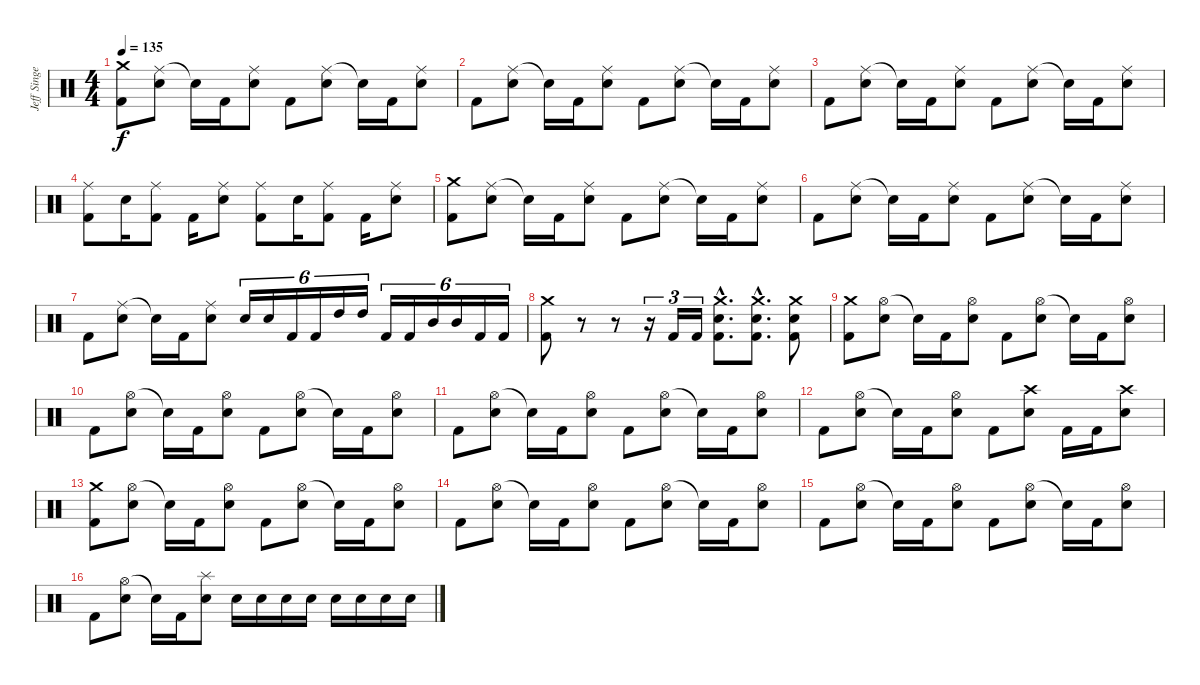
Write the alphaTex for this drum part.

\track ("Jeff Singer" "Jeff Singe") {instrument percussion}
\staff {score}
\articulation defaults
\ts (4 4)
\tempo 135
\clef neutral
\ks c
("Crash medium (hit)" "Kick (hit) 2").8{dy f} ("Ride (middle)" "Snare (hit) 2").8 "Snare (hit)"{t}.16 "Kick (hit) 2".16 ("Ride (middle)" "Snare (hit) 2").8 "Kick (hit) 2".8 ("Ride (middle)" "Snare (hit) 2").8 "Snare (hit)"{t}.16 "Kick (hit) 2".16 ("Ride (middle)" "Snare (hit) 2").8 |
"Kick (hit) 2".8 ("Ride (middle)" "Snare (hit) 2").8 "Snare (hit)"{t}.16 "Kick (hit) 2".16 ("Ride (middle)" "Snare (hit) 2").8 "Kick (hit) 2".8 ("Ride (middle)" "Snare (hit) 2").8 "Snare (hit)"{t}.16 "Kick (hit) 2".16 ("Ride (middle)" "Snare (hit) 2").8 |
"Kick (hit) 2".8 ("Ride (middle)" "Snare (hit) 2").8 "Snare (hit)"{t}.16 "Kick (hit) 2".16 ("Ride (middle)" "Snare (hit) 2").8 "Kick (hit) 2".8 ("Ride (middle)" "Snare (hit) 2").8 "Snare (hit)"{t}.16 "Kick (hit) 2".16 ("Ride (middle)" "Snare (hit) 2").8 |
("Ride (middle)" "Kick (hit) 2").8 "Snare (hit) 2".16 ("Ride (middle)" "Kick (hit) 2").8 "Kick (hit) 2".16 ("Ride (middle)" "Snare (hit) 2").8 ("Ride (middle)" "Kick (hit) 2").8 "Snare (hit) 2".16 ("Ride (middle)" "Kick (hit) 2").8 "Kick (hit) 2".16 ("Ride (middle)" "Snare (hit) 2").8 |
("Crash medium (hit)" "Kick (hit) 2").8 ("Ride (middle)" "Snare (hit) 2").8 "Snare (hit)"{t}.16 "Kick (hit) 2".16 ("Ride (middle)" "Snare (hit) 2").8 "Kick (hit) 2".8 ("Ride (middle)" "Snare (hit) 2").8 "Snare (hit)"{t}.16 "Kick (hit) 2".16 ("Ride (middle)" "Snare (hit) 2").8 |
"Kick (hit) 2".8 ("Ride (middle)" "Snare (hit) 2").8 "Snare (hit)"{t}.16 "Kick (hit) 2".16 ("Ride (middle)" "Snare (hit) 2").8 "Kick (hit) 2".8 ("Ride (middle)" "Snare (hit) 2").8 "Snare (hit)"{t}.16 "Kick (hit) 2".16 ("Ride (middle)" "Snare (hit) 2").8 |
"Kick (hit) 2".8 ("Ride (middle)" "Snare (hit) 2").8 "Snare (hit)"{t}.16 "Kick (hit) 2".16 ("Ride (middle)" "Snare (hit) 2").8 "Snare (hit) 2".16{tu (6 4)} "Snare (hit) 2".16{tu (6 4)} "Kick (hit) 2".16{tu (6 4)} "Kick (hit) 2".16{tu (6 4)} "High Tom (hit)".16{tu (6 4)} "High Tom (hit)".16{tu (6 4)} "Kick (hit) 2".16{tu (6 4)} "Kick (hit) 2".16{tu (6 4)} "Mid Tom (hit)".16{tu (6 4)} "Mid Tom (hit)".16{tu (6 4)} "Kick (hit) 2".16{tu (6 4)} "Kick (hit) 2".16{tu (6 4)} |
("Crash medium (hit)" "Kick (hit) 2").8 r.8 r.8 r.16{tu (3 2)} "Kick (hit) 2".16{tu (3 2)} "Kick (hit) 2".16{tu (3 2)} ("Crash medium (hit)"{hac} "Snare (hit) 2"{hac} "Kick (hit) 2"{hac}).8{d} ("Crash medium (hit)"{hac} "Snare (hit) 2"{hac} "Kick (hit) 2"{hac}).8{d} ("Crash medium (hit)" "Snare (hit) 2" "Kick (hit) 2").8 |
("Crash medium (hit)" "Kick (hit) 2").8 ("Hi-Hat (open)" "Snare (hit) 2").8 "Snare (hit)"{t}.16 "Kick (hit) 2".16 ("Hi-Hat (open)" "Snare (hit) 2").8 "Kick (hit) 2".8 ("Hi-Hat (open)" "Snare (hit) 2").8 "Snare (hit)"{t}.16 "Kick (hit) 2".16 ("Hi-Hat (open)" "Snare (hit) 2").8 |
"Kick (hit) 2".8 ("Hi-Hat (open)" "Snare (hit) 2").8 "Snare (hit)"{t}.16 "Kick (hit) 2".16 ("Hi-Hat (open)" "Snare (hit) 2").8 "Kick (hit) 2".8 ("Hi-Hat (open)" "Snare (hit) 2").8 "Snare (hit)"{t}.16 "Kick (hit) 2".16 ("Hi-Hat (open)" "Snare (hit) 2").8 |
"Kick (hit) 2".8 ("Hi-Hat (open)" "Snare (hit) 2").8 "Snare (hit)"{t}.16 "Kick (hit) 2".16 ("Hi-Hat (open)" "Snare (hit) 2").8 "Kick (hit) 2".8 ("Hi-Hat (open)" "Snare (hit) 2").8 "Snare (hit)"{t}.16 "Kick (hit) 2".16 ("Hi-Hat (open)" "Snare (hit) 2").8 |
"Kick (hit) 2".8 ("Hi-Hat (open)" "Snare (hit) 2").8 "Snare (hit)"{t}.16 "Kick (hit) 2".16 ("Hi-Hat (open)" "Snare (hit) 2").8 "Kick (hit) 2".8 ("Crash high (hit)" "Snare (hit) 2").8 "Kick (hit) 2".16 "Kick (hit) 2".16 ("Crash high (hit)" "Snare (hit) 2").8 |
("Crash medium (hit)" "Kick (hit) 2").8 ("Hi-Hat (open)" "Snare (hit) 2").8 "Snare (hit)"{t}.16 "Kick (hit) 2".16 ("Hi-Hat (open)" "Snare (hit) 2").8 "Kick (hit) 2".8 ("Hi-Hat (open)" "Snare (hit) 2").8 "Snare (hit)"{t}.16 "Kick (hit) 2".16 ("Hi-Hat (open)" "Snare (hit) 2").8 |
"Kick (hit) 2".8 ("Hi-Hat (open)" "Snare (hit) 2").8 "Snare (hit)"{t}.16 "Kick (hit) 2".16 ("Hi-Hat (open)" "Snare (hit) 2").8 "Kick (hit) 2".8 ("Hi-Hat (open)" "Snare (hit) 2").8 "Snare (hit)"{t}.16 "Kick (hit) 2".16 ("Hi-Hat (open)" "Snare (hit) 2").8 |
"Kick (hit) 2".8 ("Hi-Hat (open)" "Snare (hit) 2").8 "Snare (hit)"{t}.16 "Kick (hit) 2".16 ("Hi-Hat (open)" "Snare (hit) 2").8 "Kick (hit) 2".8 ("Hi-Hat (open)" "Snare (hit) 2").8 "Snare (hit)"{t}.16 "Kick (hit) 2".16 ("Hi-Hat (open)" "Snare (hit) 2").8 |
"Kick (hit) 2".8 ("Hi-Hat (open)" "Snare (hit) 2").8 "Snare (hit)"{t}.16 "Kick (hit) 2".16 ("Splash (hit)" "Snare (hit) 2").8 "Snare (hit) 2".16 "Snare (hit) 2".16 "Snare (hit) 2".16 "Snare (hit) 2".16 "Snare (hit) 2".16 "Snare (hit) 2".16 "Snare (hit) 2".16 "Snare (hit) 2".16
